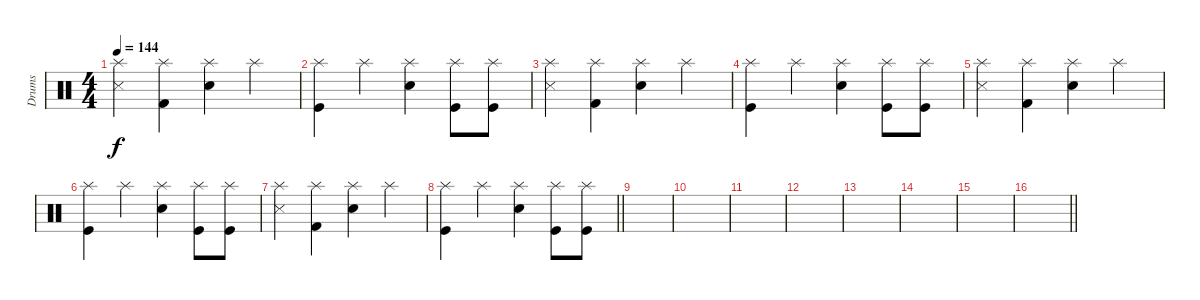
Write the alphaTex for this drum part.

\track ("Drums" "Drums") {instrument percussion}
\staff {score}
\articulation defaults
\ts (4 4)
\tempo 144
\clef neutral
\ks c
("Splash (hit)" "Snare (side stick) 3").4{dy f} ("Splash (hit)" "Kick (hit) 2").4 ("Splash (hit)" "Electric Snare (hit)").4 "Splash (hit)".4 |
("Splash (hit)" "Kick (hit)").4 "Splash (hit)".4 ("Splash (hit)" "Electric Snare (hit)").4 ("Splash (hit)" "Kick (hit)").8 ("Splash (hit)" "Kick (hit)").8 |
("Splash (hit)" "Snare (side stick) 3").4 ("Splash (hit)" "Kick (hit) 2").4 ("Splash (hit)" "Electric Snare (hit)").4 "Splash (hit)".4 |
("Splash (hit)" "Kick (hit)").4 "Splash (hit)".4 ("Splash (hit)" "Electric Snare (hit)").4 ("Splash (hit)" "Kick (hit)").8 ("Splash (hit)" "Kick (hit)").8 |
("Splash (hit)" "Snare (side stick) 3").4 ("Splash (hit)" "Kick (hit) 2").4 ("Splash (hit)" "Electric Snare (hit)").4 "Splash (hit)".4 |
("Splash (hit)" "Kick (hit)").4 "Splash (hit)".4 ("Splash (hit)" "Electric Snare (hit)").4 ("Splash (hit)" "Kick (hit)").8 ("Splash (hit)" "Kick (hit)").8 |
("Splash (hit)" "Snare (side stick) 3").4 ("Splash (hit)" "Kick (hit) 2").4 ("Splash (hit)" "Electric Snare (hit)").4 "Splash (hit)".4 |
\barLineRight lightlight
("Splash (hit)" "Kick (hit)").4 "Splash (hit)".4 ("Splash (hit)" "Electric Snare (hit)").4 ("Splash (hit)" "Kick (hit)").8 ("Splash (hit)" "Kick (hit)").8 |
|
|
|
|
|
|
|
\barLineRight lightlight
